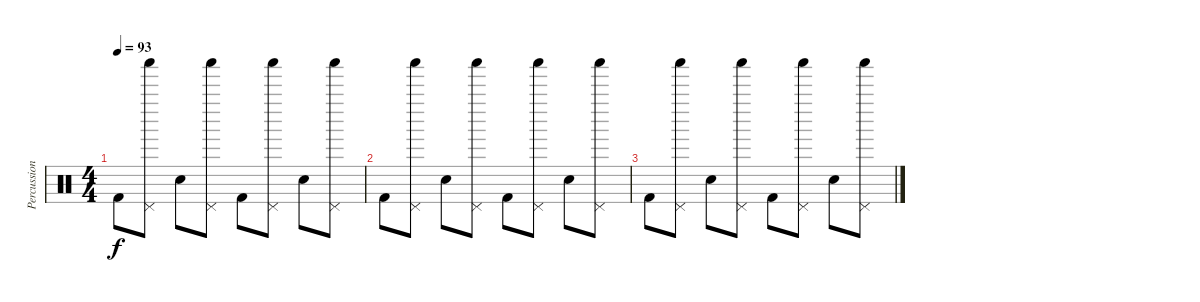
\track ("Percussion" "Percussion") {instrument percussion}
\staff {score}
\articulation defaults
\ts (4 4)
\tempo 93
\clef neutral
\ks c "Kick (hit) 2".8{dy f}
("Shaker (hit)" "Pedal Hi-Hat (hit)").8 "Snare (hit) 2".8 ("Shaker (hit)" "Pedal Hi-Hat (hit)").8 "Kick (hit) 2".8 ("Shaker (hit)" "Pedal Hi-Hat (hit)").8 "Snare (hit) 2".8 ("Shaker (hit)" "Pedal Hi-Hat (hit)").8 |
"Kick (hit) 2".8 ("Shaker (hit)" "Pedal Hi-Hat (hit)").8 "Snare (hit) 2".8 ("Shaker (hit)" "Pedal Hi-Hat (hit)").8 "Kick (hit) 2".8 ("Shaker (hit)" "Pedal Hi-Hat (hit)").8 "Snare (hit) 2".8 ("Shaker (hit)" "Pedal Hi-Hat (hit)").8 |
"Kick (hit) 2".8 ("Shaker (hit)" "Pedal Hi-Hat (hit)").8 "Snare (hit) 2".8 ("Shaker (hit)" "Pedal Hi-Hat (hit)").8 "Kick (hit) 2".8 ("Shaker (hit)" "Pedal Hi-Hat (hit)").8 "Snare (hit) 2".8 ("Shaker (hit)" "Pedal Hi-Hat (hit)").8
